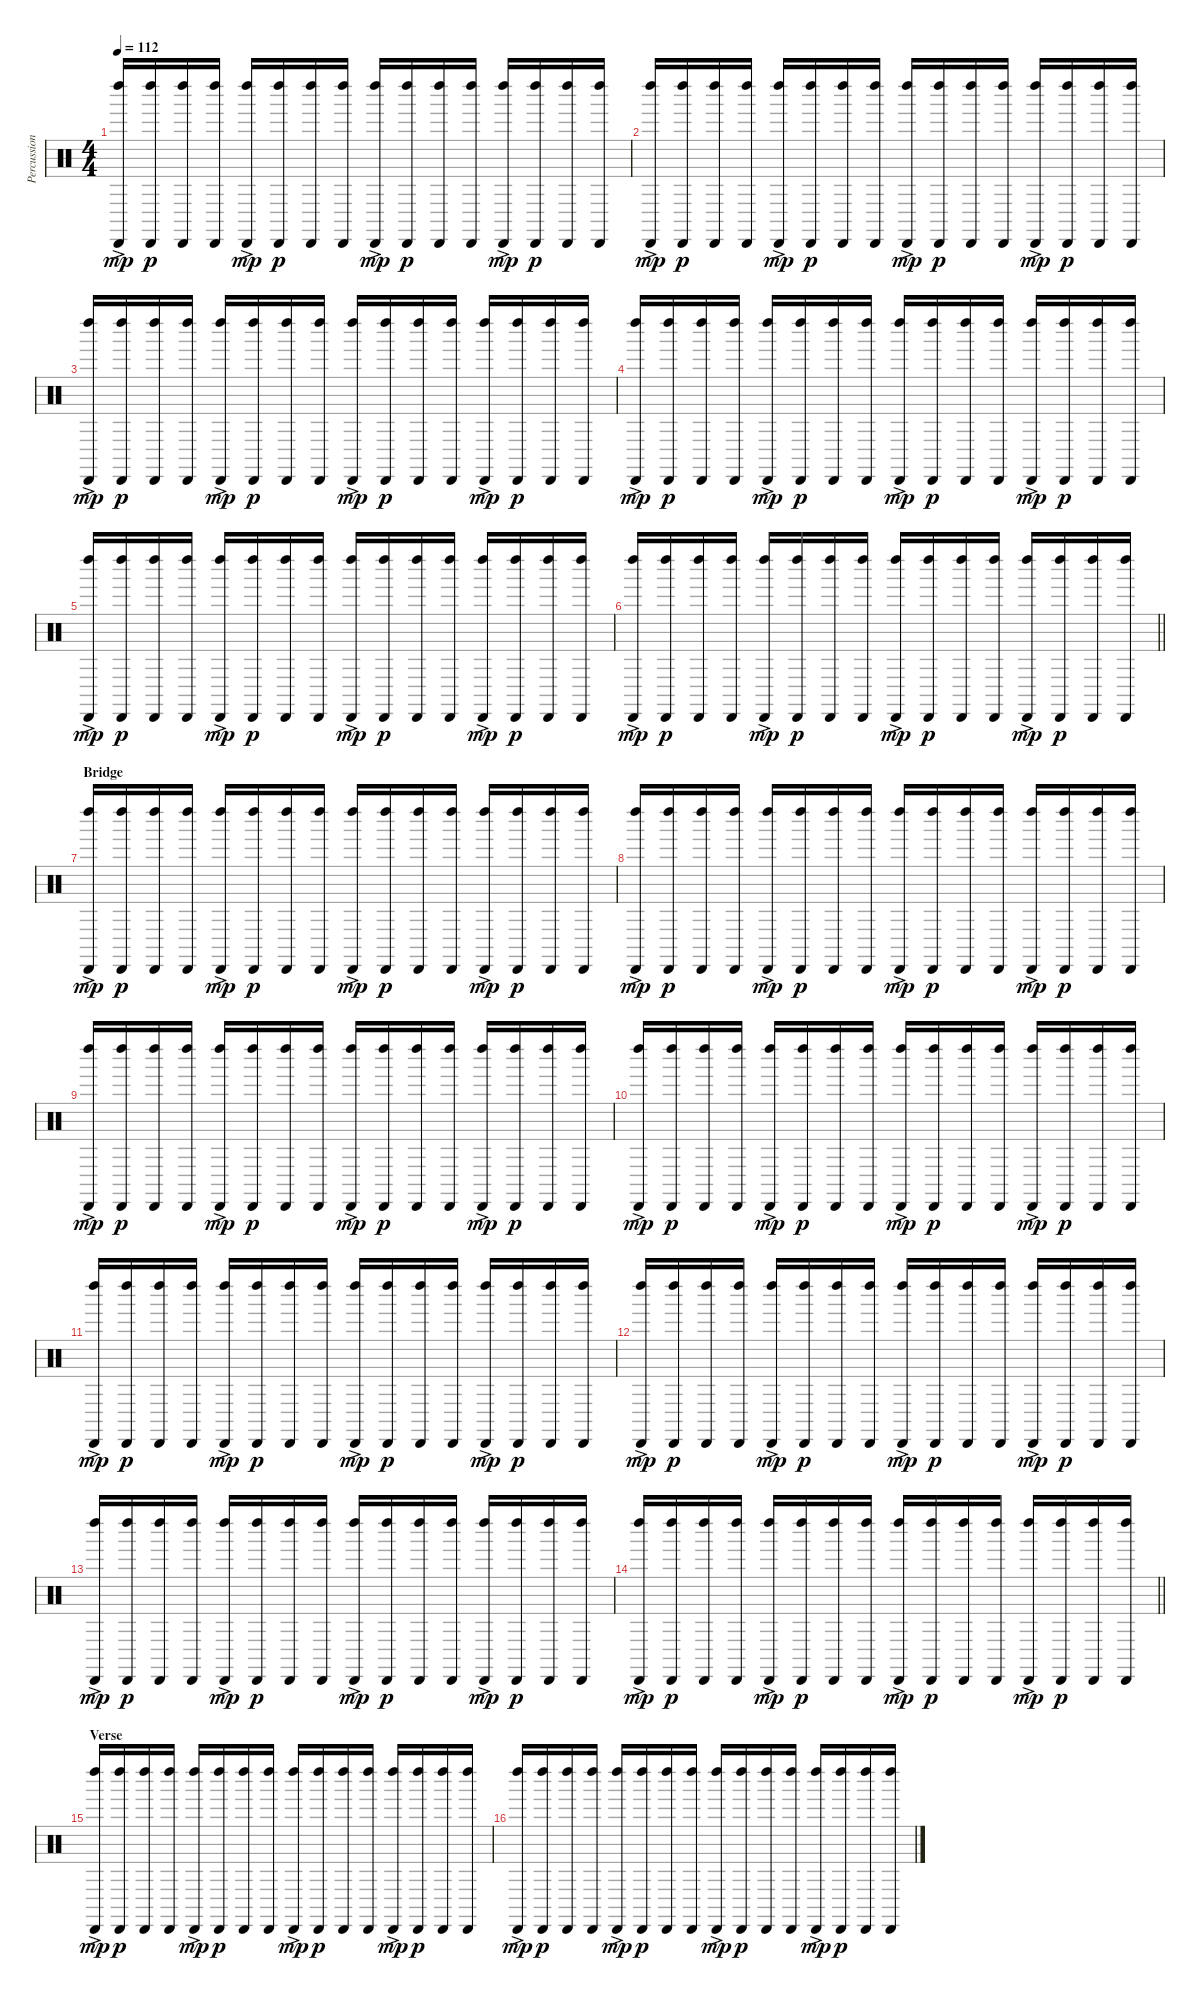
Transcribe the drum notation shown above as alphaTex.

\track ("Percussion" "Percussion") {instrument percussion}
\staff {score}
\articulation defaults
\ts (4 4)
\tempo 112
\clef neutral
\ks c
("Left Maraca (hit)"{ac} "Cabasa (hit)"{ac}).16{dy mp} ("Left Maraca (hit)" "Cabasa (hit)").16{dy p} ("Left Maraca (hit)" "Cabasa (hit)").16 ("Left Maraca (hit)" "Cabasa (hit)").16 ("Left Maraca (hit)"{ac} "Cabasa (hit)"{ac}).16{dy mp} ("Left Maraca (hit)" "Cabasa (hit)").16{dy p} ("Left Maraca (hit)" "Cabasa (hit)").16 ("Left Maraca (hit)" "Cabasa (hit)").16 ("Left Maraca (hit)"{ac} "Cabasa (hit)"{ac}).16{dy mp} ("Left Maraca (hit)" "Cabasa (hit)").16{dy p} ("Left Maraca (hit)" "Cabasa (hit)").16 ("Left Maraca (hit)" "Cabasa (hit)").16 ("Left Maraca (hit)"{ac} "Cabasa (hit)"{ac}).16{dy mp} ("Left Maraca (hit)" "Cabasa (hit)").16{dy p} ("Left Maraca (hit)" "Cabasa (hit)").16 ("Left Maraca (hit)" "Cabasa (hit)").16 |
("Left Maraca (hit)"{ac} "Cabasa (hit)"{ac}).16{dy mp} ("Left Maraca (hit)" "Cabasa (hit)").16{dy p} ("Left Maraca (hit)" "Cabasa (hit)").16 ("Left Maraca (hit)" "Cabasa (hit)").16 ("Left Maraca (hit)"{ac} "Cabasa (hit)"{ac}).16{dy mp} ("Left Maraca (hit)" "Cabasa (hit)").16{dy p} ("Left Maraca (hit)" "Cabasa (hit)").16 ("Left Maraca (hit)" "Cabasa (hit)").16 ("Left Maraca (hit)"{ac} "Cabasa (hit)"{ac}).16{dy mp} ("Left Maraca (hit)" "Cabasa (hit)").16{dy p} ("Left Maraca (hit)" "Cabasa (hit)").16 ("Left Maraca (hit)" "Cabasa (hit)").16 ("Left Maraca (hit)"{ac} "Cabasa (hit)"{ac}).16{dy mp} ("Left Maraca (hit)" "Cabasa (hit)").16{dy p} ("Left Maraca (hit)" "Cabasa (hit)").16 ("Left Maraca (hit)" "Cabasa (hit)").16 |
("Left Maraca (hit)"{ac} "Cabasa (hit)"{ac}).16{dy mp} ("Left Maraca (hit)" "Cabasa (hit)").16{dy p} ("Left Maraca (hit)" "Cabasa (hit)").16 ("Left Maraca (hit)" "Cabasa (hit)").16 ("Left Maraca (hit)"{ac} "Cabasa (hit)"{ac}).16{dy mp} ("Left Maraca (hit)" "Cabasa (hit)").16{dy p} ("Left Maraca (hit)" "Cabasa (hit)").16 ("Left Maraca (hit)" "Cabasa (hit)").16 ("Left Maraca (hit)"{ac} "Cabasa (hit)"{ac}).16{dy mp} ("Left Maraca (hit)" "Cabasa (hit)").16{dy p} ("Left Maraca (hit)" "Cabasa (hit)").16 ("Left Maraca (hit)" "Cabasa (hit)").16 ("Left Maraca (hit)"{ac} "Cabasa (hit)"{ac}).16{dy mp} ("Left Maraca (hit)" "Cabasa (hit)").16{dy p} ("Left Maraca (hit)" "Cabasa (hit)").16 ("Left Maraca (hit)" "Cabasa (hit)").16 |
("Left Maraca (hit)"{ac} "Cabasa (hit)"{ac}).16{dy mp} ("Left Maraca (hit)" "Cabasa (hit)").16{dy p} ("Left Maraca (hit)" "Cabasa (hit)").16 ("Left Maraca (hit)" "Cabasa (hit)").16 ("Left Maraca (hit)"{ac} "Cabasa (hit)"{ac}).16{dy mp} ("Left Maraca (hit)" "Cabasa (hit)").16{dy p} ("Left Maraca (hit)" "Cabasa (hit)").16 ("Left Maraca (hit)" "Cabasa (hit)").16 ("Left Maraca (hit)"{ac} "Cabasa (hit)"{ac}).16{dy mp} ("Left Maraca (hit)" "Cabasa (hit)").16{dy p} ("Left Maraca (hit)" "Cabasa (hit)").16 ("Left Maraca (hit)" "Cabasa (hit)").16 ("Left Maraca (hit)"{ac} "Cabasa (hit)"{ac}).16{dy mp} ("Left Maraca (hit)" "Cabasa (hit)").16{dy p} ("Left Maraca (hit)" "Cabasa (hit)").16 ("Left Maraca (hit)" "Cabasa (hit)").16 |
("Left Maraca (hit)"{ac} "Cabasa (hit)"{ac}).16{dy mp} ("Left Maraca (hit)" "Cabasa (hit)").16{dy p} ("Left Maraca (hit)" "Cabasa (hit)").16 ("Left Maraca (hit)" "Cabasa (hit)").16 ("Left Maraca (hit)"{ac} "Cabasa (hit)"{ac}).16{dy mp} ("Left Maraca (hit)" "Cabasa (hit)").16{dy p} ("Left Maraca (hit)" "Cabasa (hit)").16 ("Left Maraca (hit)" "Cabasa (hit)").16 ("Left Maraca (hit)"{ac} "Cabasa (hit)"{ac}).16{dy mp} ("Left Maraca (hit)" "Cabasa (hit)").16{dy p} ("Left Maraca (hit)" "Cabasa (hit)").16 ("Left Maraca (hit)" "Cabasa (hit)").16 ("Left Maraca (hit)"{ac} "Cabasa (hit)"{ac}).16{dy mp} ("Left Maraca (hit)" "Cabasa (hit)").16{dy p} ("Left Maraca (hit)" "Cabasa (hit)").16 ("Left Maraca (hit)" "Cabasa (hit)").16 |
\barLineRight lightlight
("Left Maraca (hit)"{ac} "Cabasa (hit)"{ac}).16{dy mp} ("Left Maraca (hit)" "Cabasa (hit)").16{dy p} ("Left Maraca (hit)" "Cabasa (hit)").16 ("Left Maraca (hit)" "Cabasa (hit)").16 ("Left Maraca (hit)"{ac} "Cabasa (hit)"{ac}).16{dy mp} ("Left Maraca (hit)" "Cabasa (hit)").16{dy p} ("Left Maraca (hit)" "Cabasa (hit)").16 ("Left Maraca (hit)" "Cabasa (hit)").16 ("Left Maraca (hit)"{ac} "Cabasa (hit)"{ac}).16{dy mp} ("Left Maraca (hit)" "Cabasa (hit)").16{dy p} ("Left Maraca (hit)" "Cabasa (hit)").16 ("Left Maraca (hit)" "Cabasa (hit)").16 ("Left Maraca (hit)"{ac} "Cabasa (hit)"{ac}).16{dy mp} ("Left Maraca (hit)" "Cabasa (hit)").16{dy p} ("Left Maraca (hit)" "Cabasa (hit)").16 ("Left Maraca (hit)" "Cabasa (hit)").16 |
\section ("" "Bridge")
("Left Maraca (hit)"{ac} "Cabasa (hit)"{ac}).16{dy mp} ("Left Maraca (hit)" "Cabasa (hit)").16{dy p} ("Left Maraca (hit)" "Cabasa (hit)").16 ("Left Maraca (hit)" "Cabasa (hit)").16 ("Left Maraca (hit)"{ac} "Cabasa (hit)"{ac}).16{dy mp} ("Left Maraca (hit)" "Cabasa (hit)").16{dy p} ("Left Maraca (hit)" "Cabasa (hit)").16 ("Left Maraca (hit)" "Cabasa (hit)").16 ("Left Maraca (hit)"{ac} "Cabasa (hit)"{ac}).16{dy mp} ("Left Maraca (hit)" "Cabasa (hit)").16{dy p} ("Left Maraca (hit)" "Cabasa (hit)").16 ("Left Maraca (hit)" "Cabasa (hit)").16 ("Left Maraca (hit)"{ac} "Cabasa (hit)"{ac}).16{dy mp} ("Left Maraca (hit)" "Cabasa (hit)").16{dy p} ("Left Maraca (hit)" "Cabasa (hit)").16 ("Left Maraca (hit)" "Cabasa (hit)").16 |
("Left Maraca (hit)"{ac} "Cabasa (hit)"{ac}).16{dy mp} ("Left Maraca (hit)" "Cabasa (hit)").16{dy p} ("Left Maraca (hit)" "Cabasa (hit)").16 ("Left Maraca (hit)" "Cabasa (hit)").16 ("Left Maraca (hit)"{ac} "Cabasa (hit)"{ac}).16{dy mp} ("Left Maraca (hit)" "Cabasa (hit)").16{dy p} ("Left Maraca (hit)" "Cabasa (hit)").16 ("Left Maraca (hit)" "Cabasa (hit)").16 ("Left Maraca (hit)"{ac} "Cabasa (hit)"{ac}).16{dy mp} ("Left Maraca (hit)" "Cabasa (hit)").16{dy p} ("Left Maraca (hit)" "Cabasa (hit)").16 ("Left Maraca (hit)" "Cabasa (hit)").16 ("Left Maraca (hit)"{ac} "Cabasa (hit)"{ac}).16{dy mp} ("Left Maraca (hit)" "Cabasa (hit)").16{dy p} ("Left Maraca (hit)" "Cabasa (hit)").16 ("Left Maraca (hit)" "Cabasa (hit)").16 |
("Left Maraca (hit)"{ac} "Cabasa (hit)"{ac}).16{dy mp} ("Left Maraca (hit)" "Cabasa (hit)").16{dy p} ("Left Maraca (hit)" "Cabasa (hit)").16 ("Left Maraca (hit)" "Cabasa (hit)").16 ("Left Maraca (hit)"{ac} "Cabasa (hit)"{ac}).16{dy mp} ("Left Maraca (hit)" "Cabasa (hit)").16{dy p} ("Left Maraca (hit)" "Cabasa (hit)").16 ("Left Maraca (hit)" "Cabasa (hit)").16 ("Left Maraca (hit)"{ac} "Cabasa (hit)"{ac}).16{dy mp} ("Left Maraca (hit)" "Cabasa (hit)").16{dy p} ("Left Maraca (hit)" "Cabasa (hit)").16 ("Left Maraca (hit)" "Cabasa (hit)").16 ("Left Maraca (hit)"{ac} "Cabasa (hit)"{ac}).16{dy mp} ("Left Maraca (hit)" "Cabasa (hit)").16{dy p} ("Left Maraca (hit)" "Cabasa (hit)").16 ("Left Maraca (hit)" "Cabasa (hit)").16 |
("Left Maraca (hit)"{ac} "Cabasa (hit)"{ac}).16{dy mp} ("Left Maraca (hit)" "Cabasa (hit)").16{dy p} ("Left Maraca (hit)" "Cabasa (hit)").16 ("Left Maraca (hit)" "Cabasa (hit)").16 ("Left Maraca (hit)"{ac} "Cabasa (hit)"{ac}).16{dy mp} ("Left Maraca (hit)" "Cabasa (hit)").16{dy p} ("Left Maraca (hit)" "Cabasa (hit)").16 ("Left Maraca (hit)" "Cabasa (hit)").16 ("Left Maraca (hit)"{ac} "Cabasa (hit)"{ac}).16{dy mp} ("Left Maraca (hit)" "Cabasa (hit)").16{dy p} ("Left Maraca (hit)" "Cabasa (hit)").16 ("Left Maraca (hit)" "Cabasa (hit)").16 ("Left Maraca (hit)"{ac} "Cabasa (hit)"{ac}).16{dy mp} ("Left Maraca (hit)" "Cabasa (hit)").16{dy p} ("Left Maraca (hit)" "Cabasa (hit)").16 ("Left Maraca (hit)" "Cabasa (hit)").16 |
("Left Maraca (hit)"{ac} "Cabasa (hit)"{ac}).16{dy mp} ("Left Maraca (hit)" "Cabasa (hit)").16{dy p} ("Left Maraca (hit)" "Cabasa (hit)").16 ("Left Maraca (hit)" "Cabasa (hit)").16 ("Left Maraca (hit)"{ac} "Cabasa (hit)"{ac}).16{dy mp} ("Left Maraca (hit)" "Cabasa (hit)").16{dy p} ("Left Maraca (hit)" "Cabasa (hit)").16 ("Left Maraca (hit)" "Cabasa (hit)").16 ("Left Maraca (hit)"{ac} "Cabasa (hit)"{ac}).16{dy mp} ("Left Maraca (hit)" "Cabasa (hit)").16{dy p} ("Left Maraca (hit)" "Cabasa (hit)").16 ("Left Maraca (hit)" "Cabasa (hit)").16 ("Left Maraca (hit)"{ac} "Cabasa (hit)"{ac}).16{dy mp} ("Left Maraca (hit)" "Cabasa (hit)").16{dy p} ("Left Maraca (hit)" "Cabasa (hit)").16 ("Left Maraca (hit)" "Cabasa (hit)").16 |
("Left Maraca (hit)"{ac} "Cabasa (hit)"{ac}).16{dy mp} ("Left Maraca (hit)" "Cabasa (hit)").16{dy p} ("Left Maraca (hit)" "Cabasa (hit)").16 ("Left Maraca (hit)" "Cabasa (hit)").16 ("Left Maraca (hit)"{ac} "Cabasa (hit)"{ac}).16{dy mp} ("Left Maraca (hit)" "Cabasa (hit)").16{dy p} ("Left Maraca (hit)" "Cabasa (hit)").16 ("Left Maraca (hit)" "Cabasa (hit)").16 ("Left Maraca (hit)"{ac} "Cabasa (hit)"{ac}).16{dy mp} ("Left Maraca (hit)" "Cabasa (hit)").16{dy p} ("Left Maraca (hit)" "Cabasa (hit)").16 ("Left Maraca (hit)" "Cabasa (hit)").16 ("Left Maraca (hit)"{ac} "Cabasa (hit)"{ac}).16{dy mp} ("Left Maraca (hit)" "Cabasa (hit)").16{dy p} ("Left Maraca (hit)" "Cabasa (hit)").16 ("Left Maraca (hit)" "Cabasa (hit)").16 |
("Left Maraca (hit)"{ac} "Cabasa (hit)"{ac}).16{dy mp} ("Left Maraca (hit)" "Cabasa (hit)").16{dy p} ("Left Maraca (hit)" "Cabasa (hit)").16 ("Left Maraca (hit)" "Cabasa (hit)").16 ("Left Maraca (hit)"{ac} "Cabasa (hit)"{ac}).16{dy mp} ("Left Maraca (hit)" "Cabasa (hit)").16{dy p} ("Left Maraca (hit)" "Cabasa (hit)").16 ("Left Maraca (hit)" "Cabasa (hit)").16 ("Left Maraca (hit)"{ac} "Cabasa (hit)"{ac}).16{dy mp} ("Left Maraca (hit)" "Cabasa (hit)").16{dy p} ("Left Maraca (hit)" "Cabasa (hit)").16 ("Left Maraca (hit)" "Cabasa (hit)").16 ("Left Maraca (hit)"{ac} "Cabasa (hit)"{ac}).16{dy mp} ("Left Maraca (hit)" "Cabasa (hit)").16{dy p} ("Left Maraca (hit)" "Cabasa (hit)").16 ("Left Maraca (hit)" "Cabasa (hit)").16 |
\barLineRight lightlight
("Left Maraca (hit)"{ac} "Cabasa (hit)"{ac}).16{dy mp} ("Left Maraca (hit)" "Cabasa (hit)").16{dy p} ("Left Maraca (hit)" "Cabasa (hit)").16 ("Left Maraca (hit)" "Cabasa (hit)").16 ("Left Maraca (hit)"{ac} "Cabasa (hit)"{ac}).16{dy mp} ("Left Maraca (hit)" "Cabasa (hit)").16{dy p} ("Left Maraca (hit)" "Cabasa (hit)").16 ("Left Maraca (hit)" "Cabasa (hit)").16 ("Left Maraca (hit)"{ac} "Cabasa (hit)"{ac}).16{dy mp} ("Left Maraca (hit)" "Cabasa (hit)").16{dy p} ("Left Maraca (hit)" "Cabasa (hit)").16 ("Left Maraca (hit)" "Cabasa (hit)").16 ("Left Maraca (hit)"{ac} "Cabasa (hit)"{ac}).16{dy mp} ("Left Maraca (hit)" "Cabasa (hit)").16{dy p} ("Left Maraca (hit)" "Cabasa (hit)").16 ("Left Maraca (hit)" "Cabasa (hit)").16 |
\section ("" "Verse")
("Left Maraca (hit)"{ac} "Cabasa (hit)"{ac}).16{dy mp} ("Left Maraca (hit)" "Cabasa (hit)").16{dy p} ("Left Maraca (hit)" "Cabasa (hit)").16 ("Left Maraca (hit)" "Cabasa (hit)").16 ("Left Maraca (hit)"{ac} "Cabasa (hit)"{ac}).16{dy mp} ("Left Maraca (hit)" "Cabasa (hit)").16{dy p} ("Left Maraca (hit)" "Cabasa (hit)").16 ("Left Maraca (hit)" "Cabasa (hit)").16 ("Left Maraca (hit)"{ac} "Cabasa (hit)"{ac}).16{dy mp} ("Left Maraca (hit)" "Cabasa (hit)").16{dy p} ("Left Maraca (hit)" "Cabasa (hit)").16 ("Left Maraca (hit)" "Cabasa (hit)").16 ("Left Maraca (hit)"{ac} "Cabasa (hit)"{ac}).16{dy mp} ("Left Maraca (hit)" "Cabasa (hit)").16{dy p} ("Left Maraca (hit)" "Cabasa (hit)").16 ("Left Maraca (hit)" "Cabasa (hit)").16 |
("Left Maraca (hit)"{ac} "Cabasa (hit)"{ac}).16{dy mp} ("Left Maraca (hit)" "Cabasa (hit)").16{dy p} ("Left Maraca (hit)" "Cabasa (hit)").16 ("Left Maraca (hit)" "Cabasa (hit)").16 ("Left Maraca (hit)"{ac} "Cabasa (hit)"{ac}).16{dy mp} ("Left Maraca (hit)" "Cabasa (hit)").16{dy p} ("Left Maraca (hit)" "Cabasa (hit)").16 ("Left Maraca (hit)" "Cabasa (hit)").16 ("Left Maraca (hit)"{ac} "Cabasa (hit)"{ac}).16{dy mp} ("Left Maraca (hit)" "Cabasa (hit)").16{dy p} ("Left Maraca (hit)" "Cabasa (hit)").16 ("Left Maraca (hit)" "Cabasa (hit)").16 ("Left Maraca (hit)"{ac} "Cabasa (hit)"{ac}).16{dy mp} ("Left Maraca (hit)" "Cabasa (hit)").16{dy p} ("Left Maraca (hit)" "Cabasa (hit)").16 ("Left Maraca (hit)" "Cabasa (hit)").16
